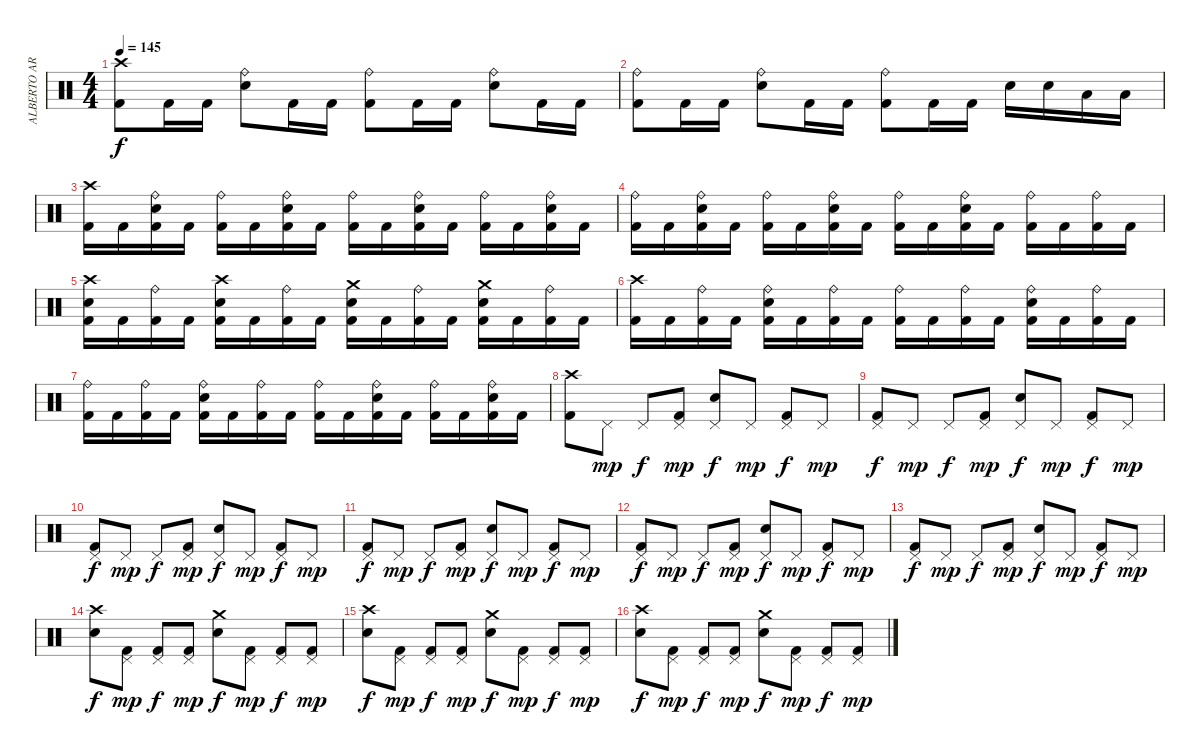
\track ("ALBERTO ARDINES" "ALBERTO AR") {instrument percussion}
\staff {score}
\articulation defaults
\ts (4 4)
\tempo 145
\clef neutral
\ks c
("Crash high (hit)" "Kick (hit) 2").8{dy f} "Kick (hit) 2".16 "Kick (hit) 2".16 ("Ride (bell)" "Electric Snare (hit)").8 "Kick (hit) 2".16 "Kick (hit) 2".16 ("Ride (bell)" "Kick (hit) 2").8 "Kick (hit) 2".16 "Kick (hit) 2".16 ("Ride (bell)" "Electric Snare (hit)").8 "Kick (hit) 2".16 "Kick (hit) 2".16 |
("Ride (bell)" "Kick (hit) 2").8 "Kick (hit) 2".16 "Kick (hit) 2".16 ("Ride (bell)" "Electric Snare (hit)").8 "Kick (hit) 2".16 "Kick (hit) 2".16 ("Ride (bell)" "Kick (hit) 2").8 "Kick (hit) 2".16 "Kick (hit) 2".16 "Electric Snare (hit)".16 "Electric Snare (hit)".16 "Low Tom (hit)".16 "Low Tom (hit)".16 |
("Crash high (hit)" "Kick (hit) 2").16 "Kick (hit) 2".16 ("Ride (bell)" "Electric Snare (hit)" "Kick (hit) 2").16 "Kick (hit) 2".16 ("Ride (bell)" "Kick (hit) 2").16 "Kick (hit) 2".16 ("Ride (bell)" "Electric Snare (hit)" "Kick (hit) 2").16 "Kick (hit) 2".16 ("Ride (bell)" "Kick (hit) 2").16 "Kick (hit) 2".16 ("Ride (bell)" "Electric Snare (hit)" "Kick (hit) 2").16 "Kick (hit) 2".16 ("Ride (bell)" "Kick (hit) 2").16 "Kick (hit) 2".16 ("Ride (bell)" "Electric Snare (hit)" "Kick (hit) 2").16 "Kick (hit) 2".16 |
("Ride (bell)" "Kick (hit) 2").16 "Kick (hit) 2".16 ("Ride (bell)" "Electric Snare (hit)" "Kick (hit) 2").16 "Kick (hit) 2".16 ("Ride (bell)" "Kick (hit) 2").16 "Kick (hit) 2".16 ("Ride (bell)" "Electric Snare (hit)" "Kick (hit) 2").16 "Kick (hit) 2".16 ("Ride (bell)" "Kick (hit) 2").16 "Kick (hit) 2".16 ("Ride (bell)" "Electric Snare (hit)" "Kick (hit) 2").16 "Kick (hit) 2".16 ("Ride (bell)" "Kick (hit) 2").16 "Kick (hit) 2".16 ("Ride (bell)" "Kick (hit) 2").16 "Kick (hit) 2".16 |
("Crash high (hit)" "Electric Snare (hit)" "Kick (hit) 2").16 "Kick (hit) 2".16 ("Ride (bell)" "Kick (hit) 2").16 "Kick (hit) 2".16 ("Crash high (hit)" "Electric Snare (hit)" "Kick (hit) 2").16 "Kick (hit) 2".16 ("Ride (bell)" "Kick (hit) 2").16 "Kick (hit) 2".16 ("Crash medium (hit)" "Electric Snare (hit)" "Kick (hit) 2").16 "Kick (hit) 2".16 ("Ride (bell)" "Kick (hit) 2").16 "Kick (hit) 2".16 ("Crash medium (hit)" "Electric Snare (hit)" "Kick (hit) 2").16 "Kick (hit) 2".16 ("Ride (bell)" "Kick (hit) 2").16 "Kick (hit) 2".16 |
("Crash high (hit)" "Kick (hit) 2").16 "Kick (hit) 2".16 ("Ride (bell)" "Kick (hit) 2").16 "Kick (hit) 2".16 ("Ride (bell)" "Electric Snare (hit)" "Kick (hit) 2").16 "Kick (hit) 2".16 ("Ride (bell)" "Kick (hit) 2").16 "Kick (hit) 2".16 ("Ride (bell)" "Kick (hit) 2").16 "Kick (hit) 2".16 ("Ride (bell)" "Kick (hit) 2").16 "Kick (hit) 2".16 ("Ride (bell)" "Electric Snare (hit)" "Kick (hit) 2").16 "Kick (hit) 2".16 ("Ride (bell)" "Kick (hit) 2").16 "Kick (hit) 2".16 |
("Ride (bell)" "Kick (hit) 2").16 "Kick (hit) 2".16 ("Ride (bell)" "Kick (hit) 2").16 "Kick (hit) 2".16 ("Ride (bell)" "Electric Snare (hit)" "Kick (hit) 2").16 "Kick (hit) 2".16 ("Ride (bell)" "Kick (hit) 2").16 "Kick (hit) 2".16 ("Ride (bell)" "Kick (hit) 2").16 "Kick (hit) 2".16 ("Ride (bell)" "Electric Snare (hit)" "Kick (hit) 2").16 "Kick (hit) 2".16 ("Ride (bell)" "Kick (hit) 2").16 "Kick (hit) 2".16 ("Ride (bell)" "Electric Snare (hit)" "Kick (hit) 2").16 "Kick (hit) 2".16 |
("Crash high (hit)" "Kick (hit) 2").8 "Pedal Hi-Hat (hit)".8{dy mp} "Pedal Hi-Hat (hit)".8{dy f} ("Pedal Hi-Hat (hit)" "Kick (hit) 2").8{dy mp} ("Pedal Hi-Hat (hit)" "Electric Snare (hit)").8{dy f} "Pedal Hi-Hat (hit)".8{dy mp} ("Pedal Hi-Hat (hit)" "Kick (hit) 2").8{dy f} "Pedal Hi-Hat (hit)".8{dy mp} |
("Pedal Hi-Hat (hit)" "Kick (hit) 2").8{dy f} "Pedal Hi-Hat (hit)".8{dy mp} "Pedal Hi-Hat (hit)".8{dy f} ("Pedal Hi-Hat (hit)" "Kick (hit) 2").8{dy mp} ("Pedal Hi-Hat (hit)" "Electric Snare (hit)").8{dy f} "Pedal Hi-Hat (hit)".8{dy mp} ("Pedal Hi-Hat (hit)" "Kick (hit) 2").8{dy f} "Pedal Hi-Hat (hit)".8{dy mp} |
("Pedal Hi-Hat (hit)" "Kick (hit) 2").8{dy f} "Pedal Hi-Hat (hit)".8{dy mp} "Pedal Hi-Hat (hit)".8{dy f} ("Pedal Hi-Hat (hit)" "Kick (hit) 2").8{dy mp} ("Pedal Hi-Hat (hit)" "Electric Snare (hit)").8{dy f} "Pedal Hi-Hat (hit)".8{dy mp} ("Pedal Hi-Hat (hit)" "Kick (hit) 2").8{dy f} "Pedal Hi-Hat (hit)".8{dy mp} |
("Pedal Hi-Hat (hit)" "Kick (hit) 2").8{dy f} "Pedal Hi-Hat (hit)".8{dy mp} "Pedal Hi-Hat (hit)".8{dy f} ("Pedal Hi-Hat (hit)" "Kick (hit) 2").8{dy mp} ("Pedal Hi-Hat (hit)" "Electric Snare (hit)").8{dy f} "Pedal Hi-Hat (hit)".8{dy mp} ("Pedal Hi-Hat (hit)" "Kick (hit) 2").8{dy f} "Pedal Hi-Hat (hit)".8{dy mp} |
("Pedal Hi-Hat (hit)" "Kick (hit) 2").8{dy f} "Pedal Hi-Hat (hit)".8{dy mp} "Pedal Hi-Hat (hit)".8{dy f} ("Pedal Hi-Hat (hit)" "Kick (hit) 2").8{dy mp} ("Pedal Hi-Hat (hit)" "Electric Snare (hit)").8{dy f} "Pedal Hi-Hat (hit)".8{dy mp} ("Pedal Hi-Hat (hit)" "Kick (hit) 2").8{dy f} "Pedal Hi-Hat (hit)".8{dy mp} |
("Pedal Hi-Hat (hit)" "Kick (hit) 2").8{dy f} "Pedal Hi-Hat (hit)".8{dy mp} "Pedal Hi-Hat (hit)".8{dy f} ("Pedal Hi-Hat (hit)" "Kick (hit) 2").8{dy mp} ("Pedal Hi-Hat (hit)" "Electric Snare (hit)").8{dy f} "Pedal Hi-Hat (hit)".8{dy mp} ("Pedal Hi-Hat (hit)" "Kick (hit) 2").8{dy f} "Pedal Hi-Hat (hit)".8{dy mp} |
("Crash high (hit)" "Electric Snare (hit)").8{dy f} ("Pedal Hi-Hat (hit)" "Kick (hit) 2").8{dy mp} ("Pedal Hi-Hat (hit)" "Kick (hit) 2").8{dy f} ("Pedal Hi-Hat (hit)" "Kick (hit) 2").8{dy mp} ("Crash medium (hit)" "Electric Snare (hit)").8{dy f} ("Pedal Hi-Hat (hit)" "Kick (hit) 2").8{dy mp} ("Pedal Hi-Hat (hit)" "Kick (hit) 2").8{dy f} ("Pedal Hi-Hat (hit)" "Kick (hit) 2").8{dy mp} |
("Crash high (hit)" "Electric Snare (hit)").8{dy f} ("Pedal Hi-Hat (hit)" "Kick (hit) 2").8{dy mp} ("Pedal Hi-Hat (hit)" "Kick (hit) 2").8{dy f} ("Pedal Hi-Hat (hit)" "Kick (hit) 2").8{dy mp} ("Crash medium (hit)" "Electric Snare (hit)").8{dy f} ("Pedal Hi-Hat (hit)" "Kick (hit) 2").8{dy mp} ("Pedal Hi-Hat (hit)" "Kick (hit) 2").8{dy f} ("Pedal Hi-Hat (hit)" "Kick (hit) 2").8{dy mp} |
("Crash high (hit)" "Electric Snare (hit)").8{dy f} ("Pedal Hi-Hat (hit)" "Kick (hit) 2").8{dy mp} ("Pedal Hi-Hat (hit)" "Kick (hit) 2").8{dy f} ("Pedal Hi-Hat (hit)" "Kick (hit) 2").8{dy mp} ("Crash medium (hit)" "Electric Snare (hit)").8{dy f} ("Pedal Hi-Hat (hit)" "Kick (hit) 2").8{dy mp} ("Pedal Hi-Hat (hit)" "Kick (hit) 2").8{dy f} ("Pedal Hi-Hat (hit)" "Kick (hit) 2").8{dy mp}
